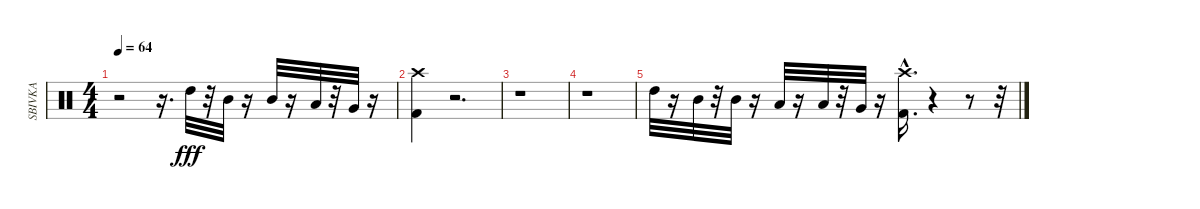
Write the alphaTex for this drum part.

\track ("SBIVKA" "SBIVKA") {instrument percussion}
\staff {score}
\articulation defaults
\ts (4 4)
\tempo 64
\clef neutral
\ks c
r.2{dy f} r.16{d} "High Tom (hit)".32{dy fff} r.32 "Mid Tom (hit)".32 r.16 "Mid Tom (hit)".32 r.16 "Low Tom (hit)".32 r.32 "Very Low Tom (hit)".32 r.16 |
("Kick (hit) 2" "Crash high (hit)").4 r.2{d} |
r.1 |
r.1 |
"High Tom (hit)".32 r.16 "Mid Tom (hit)".32 r.32 "Mid Tom (hit)".32 r.16 "Low Tom (hit)".32 r.16 "Low Tom (hit)".32 r.32 "Very Low Tom (hit)".32 r.16 ("Kick (hit) 2"{hac} "Crash high (hit)"{hac}).16{d} r.4 r.8 r.32
